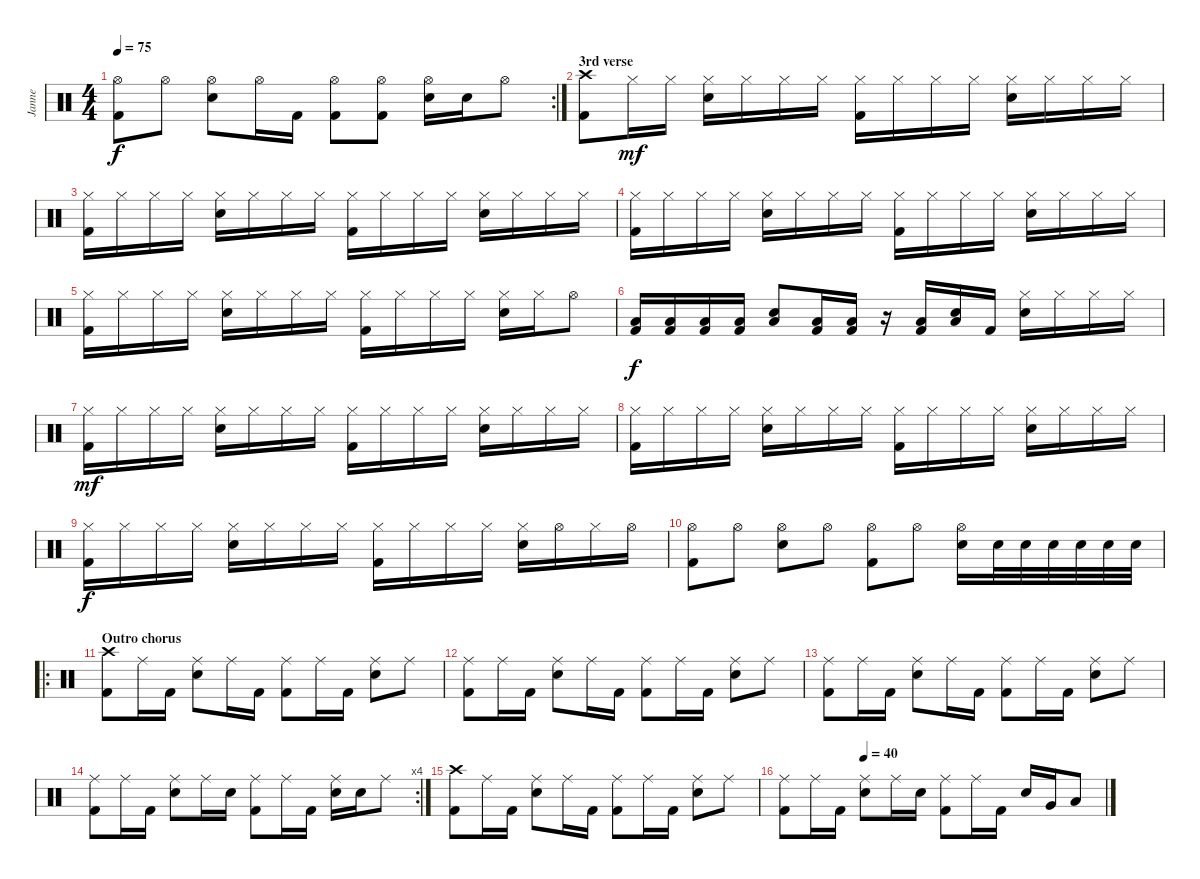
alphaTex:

\track ("Janne" "Janne") {instrument percussion}
\staff {score}
\articulation defaults
\rc 2
\ts (4 4)
\tempo 75
\clef neutral
\ks c
("Hi-Hat (open)" "Kick (hit) 2").8{dy f} "Hi-Hat (open)".8 ("Hi-Hat (open)" "Electric Snare (hit)").8 "Hi-Hat (open)".16 "Kick (hit) 2".16 ("Hi-Hat (open)" "Kick (hit) 2").8 ("Hi-Hat (open)" "Kick (hit) 2").8 ("Hi-Hat (open)" "Electric Snare (hit)").16 "Electric Snare (hit)".16 "Hi-Hat (open)".8 |
\section ("" "3rd verse")
("Crash high (hit)" "Kick (hit) 2").8 "Hi-Hat (closed)".16{dy mf} "Hi-Hat (closed)".16 ("Hi-Hat (closed)" "Electric Snare (hit)").16 "Hi-Hat (closed)".16 "Hi-Hat (closed)".16 "Hi-Hat (closed)".16 ("Hi-Hat (closed)" "Kick (hit) 2").16 "Hi-Hat (closed)".16 "Hi-Hat (closed)".16 "Hi-Hat (closed)".16 ("Hi-Hat (closed)" "Electric Snare (hit)").16 "Hi-Hat (closed)".16 "Hi-Hat (closed)".16 "Hi-Hat (closed)".16 |
("Hi-Hat (closed)" "Kick (hit) 2").16 "Hi-Hat (closed)".16 "Hi-Hat (closed)".16 "Hi-Hat (closed)".16 ("Hi-Hat (closed)" "Electric Snare (hit)").16 "Hi-Hat (closed)".16 "Hi-Hat (closed)".16 "Hi-Hat (closed)".16 ("Hi-Hat (closed)" "Kick (hit) 2").16 "Hi-Hat (closed)".16 "Hi-Hat (closed)".16 "Hi-Hat (closed)".16 ("Hi-Hat (closed)" "Electric Snare (hit)").16 "Hi-Hat (closed)".16 "Hi-Hat (closed)".16 "Hi-Hat (closed)".16 |
("Hi-Hat (closed)" "Kick (hit) 2").16 "Hi-Hat (closed)".16 "Hi-Hat (closed)".16 "Hi-Hat (closed)".16 ("Hi-Hat (closed)" "Electric Snare (hit)").16 "Hi-Hat (closed)".16 "Hi-Hat (closed)".16 "Hi-Hat (closed)".16 ("Hi-Hat (closed)" "Kick (hit) 2").16 "Hi-Hat (closed)".16 "Hi-Hat (closed)".16 "Hi-Hat (closed)".16 ("Hi-Hat (closed)" "Electric Snare (hit)").16 "Hi-Hat (closed)".16 "Hi-Hat (closed)".16 "Hi-Hat (closed)".16 |
("Hi-Hat (closed)" "Kick (hit) 2").16 "Hi-Hat (closed)".16 "Hi-Hat (closed)".16 "Hi-Hat (closed)".16 ("Hi-Hat (closed)" "Electric Snare (hit)").16 "Hi-Hat (closed)".16 "Hi-Hat (closed)".16 "Hi-Hat (closed)".16 ("Hi-Hat (closed)" "Kick (hit) 2").16 "Hi-Hat (closed)".16 "Hi-Hat (closed)".16 "Hi-Hat (closed)".16 ("Hi-Hat (closed)" "Electric Snare (hit)").16 "Hi-Hat (closed)".16 "Hi-Hat (open)".8 |
("Low Floor Tom (hit)" "Kick (hit) 2").16{dy f} ("Low Floor Tom (hit)" "Kick (hit) 2").16 ("Low Floor Tom (hit)" "Kick (hit) 2").16 ("Low Floor Tom (hit)" "Kick (hit) 2").16 ("Low Floor Tom (hit)" "Electric Snare (hit)").8 ("Low Floor Tom (hit)" "Kick (hit) 2").16 ("Low Floor Tom (hit)" "Kick (hit) 2").16 r.16 ("Low Floor Tom (hit)" "Kick (hit) 2").16 ("Low Floor Tom (hit)" "Electric Snare (hit)").16 "Kick (hit) 2".16 ("Hi-Hat (closed)" "Electric Snare (hit)").16 "Hi-Hat (closed)".16 "Hi-Hat (closed)".16 "Hi-Hat (closed)".16 |
("Hi-Hat (closed)" "Kick (hit) 2").16{dy mf} "Hi-Hat (closed)".16 "Hi-Hat (closed)".16 "Hi-Hat (closed)".16 ("Hi-Hat (closed)" "Electric Snare (hit)").16 "Hi-Hat (closed)".16 "Hi-Hat (closed)".16 "Hi-Hat (closed)".16 ("Hi-Hat (closed)" "Kick (hit) 2").16 "Hi-Hat (closed)".16 "Hi-Hat (closed)".16 "Hi-Hat (closed)".16 ("Hi-Hat (closed)" "Electric Snare (hit)").16 "Hi-Hat (closed)".16 "Hi-Hat (closed)".16 "Hi-Hat (closed)".16 |
("Hi-Hat (closed)" "Kick (hit) 2").16 "Hi-Hat (closed)".16 "Hi-Hat (closed)".16 "Hi-Hat (closed)".16 ("Hi-Hat (closed)" "Electric Snare (hit)").16 "Hi-Hat (closed)".16 "Hi-Hat (closed)".16 "Hi-Hat (closed)".16 ("Hi-Hat (closed)" "Kick (hit) 2").16 "Hi-Hat (closed)".16 "Hi-Hat (closed)".16 "Hi-Hat (closed)".16 ("Hi-Hat (closed)" "Electric Snare (hit)").16 "Hi-Hat (closed)".16 "Hi-Hat (closed)".16 "Hi-Hat (closed)".16 |
("Hi-Hat (closed)" "Kick (hit) 2").16{dy f} "Hi-Hat (closed)".16 "Hi-Hat (closed)".16 "Hi-Hat (closed)".16 ("Hi-Hat (closed)" "Electric Snare (hit)").16 "Hi-Hat (closed)".16 "Hi-Hat (closed)".16 "Hi-Hat (closed)".16 ("Hi-Hat (closed)" "Kick (hit) 2").16 "Hi-Hat (closed)".16 "Hi-Hat (closed)".16 "Hi-Hat (closed)".16 ("Hi-Hat (closed)" "Electric Snare (hit)").16 "Hi-Hat (open)".16 "Hi-Hat (closed)".16 "Hi-Hat (open)".16 |
("Hi-Hat (open)" "Kick (hit) 2").8 "Hi-Hat (open)".8 ("Hi-Hat (open)" "Electric Snare (hit)").8 "Hi-Hat (open)".8 ("Hi-Hat (open)" "Kick (hit) 2").8 "Hi-Hat (open)".8 ("Hi-Hat (open)" "Electric Snare (hit)").16 "Electric Snare (hit)".32 "Electric Snare (hit)".32 "Electric Snare (hit)".32 "Electric Snare (hit)".32 "Electric Snare (hit)".32 "Electric Snare (hit)".32 |
\ro
\section ("" "Outro chorus")
("Crash high (hit)" "Kick (hit) 2").8 "Ride (middle)".16 "Kick (hit) 2".16 ("Ride (middle)" "Electric Snare (hit)").8 "Ride (middle)".16 "Kick (hit) 2".16 ("Ride (middle)" "Kick (hit) 2").8 "Ride (middle)".16 "Kick (hit) 2".16 ("Ride (middle)" "Electric Snare (hit)").8 "Ride (middle)".8 |
("Ride (middle)" "Kick (hit) 2").8 "Ride (middle)".16 "Kick (hit) 2".16 ("Ride (middle)" "Electric Snare (hit)").8 "Ride (middle)".16 "Kick (hit) 2".16 ("Ride (middle)" "Kick (hit) 2").8 "Ride (middle)".16 "Kick (hit) 2".16 ("Ride (middle)" "Electric Snare (hit)").8 "Ride (middle)".8 |
("Ride (middle)" "Kick (hit) 2").8 "Ride (middle)".16 "Kick (hit) 2".16 ("Ride (middle)" "Electric Snare (hit)").8 "Ride (middle)".16 "Kick (hit) 2".16 ("Ride (middle)" "Kick (hit) 2").8 "Ride (middle)".16 "Kick (hit) 2".16 ("Ride (middle)" "Electric Snare (hit)").8 "Ride (middle)".8 |
\rc 4
("Ride (middle)" "Kick (hit) 2").8 "Ride (middle)".16 "Kick (hit) 2".16 ("Ride (middle)" "Electric Snare (hit)").8 "Ride (middle)".16 "Electric Snare (hit)".16 ("Ride (middle)" "Kick (hit) 2").8 "Ride (middle)".16 "Kick (hit) 2".16 ("Ride (middle)" "Electric Snare (hit)").16 "Electric Snare (hit)".16 "Ride (middle)".8 |
("Crash high (hit)" "Kick (hit) 2").8 "Ride (middle)".16 "Kick (hit) 2".16 ("Ride (middle)" "Electric Snare (hit)").8 "Ride (middle)".16 "Kick (hit) 2".16 ("Ride (middle)" "Kick (hit) 2").8 "Ride (middle)".16 "Kick (hit) 2".16 ("Ride (middle)" "Electric Snare (hit)").8 "Ride (middle)".8 |
\tempo (40 0.25)
("Ride (middle)" "Kick (hit) 2").8 "Ride (middle)".16 "Kick (hit) 2".16 ("Ride (middle)" "Electric Snare (hit)").8 "Ride (middle)".16 "Electric Snare (hit)".16 ("Ride (middle)" "Kick (hit) 2").8 "Ride (middle)".16 "Kick (hit) 2".16 "Electric Snare (hit)".16 "Very Low Tom (hit)".16 "Low Floor Tom (hit)".8
